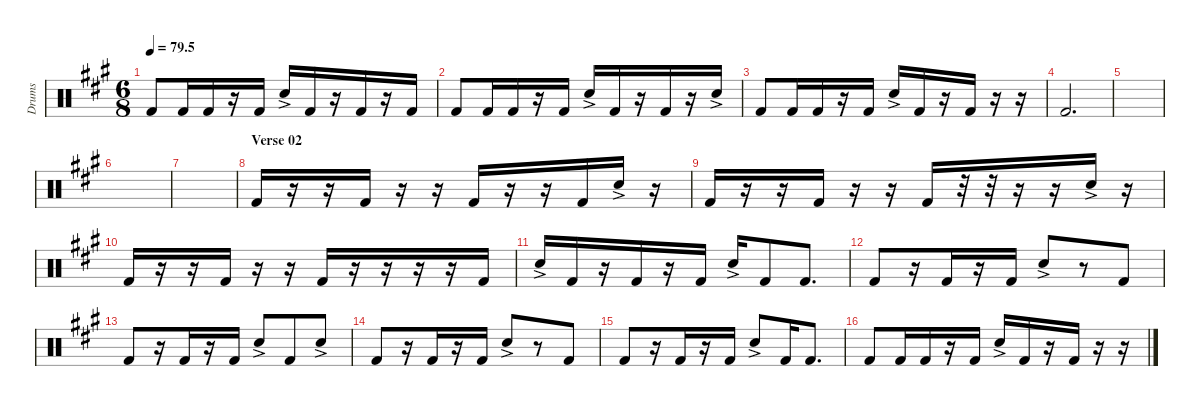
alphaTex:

\defaultSystemsLayout 4
\hideDynamics
\bracketExtendMode nobrackets
\otherSystemsTrackNameOrientation horizontal
\track ("F&S" "Drums") {instrument percussion}
\staff {score}
\articulation defaults
\ts (6 8)
\tempo
79.5
\accidentals auto
\clef neutral
\ottava regular
\simile none
\scale
0.333333
\ks a "Kick (hit) 2"{acc forcenatural}.8{dy f} "Kick (hit) 2"{acc forcenatural}.16 "Kick (hit) 2"{acc forcenatural}.16
r.16 "Kick (hit) 2"{acc forcenatural}.16 "Snare (hit) 2"{ac acc forcenatural}.16 "Kick (hit) 2"{acc forcenatural}.16 r.16 "Kick (hit) 2"{acc forcenatural}.16 r.16 "Kick (hit) 2"{acc forcenatural}.16 |
\scale
0.333333 "Kick (hit) 2"{acc forcenatural}.8 "Kick (hit) 2"{acc forcenatural}.16 "Kick (hit) 2"{acc forcenatural}.16 r.16 "Kick (hit) 2"{acc forcenatural}.16 "Snare (hit) 2"{ac acc forcenatural}.16 "Kick (hit) 2"{acc forcenatural}.16 r.16 "Kick (hit) 2"{acc forcenatural}.16 r.16 "Snare (hit) 2"{ac acc forcenatural}.16 |
\scale
0.333333 "Kick (hit) 2"{acc forcenatural}.8 "Kick (hit) 2"{acc forcenatural}.16 "Kick (hit) 2"{acc forcenatural}.16 r.16 "Kick (hit) 2"{acc forcenatural}.16 "Snare (hit) 2"{ac acc forcenatural}.16 "Kick (hit) 2"{acc forcenatural}.16 r.16 "Kick (hit) 2"{acc forcenatural}.16 r.16 r.16 |
\scale
0.333333 "Kick (hit) 2"{acc forcenatural}.2{d} |
\scale
0.333333 |
\scale
0.333333 |
\scale
0.333333 |
\section ("" "Verse 02")
\scale
0.333333 "Kick (hit) 2"{acc forcenatural}.16 r.16 r.16 "Kick (hit) 2"{acc forcenatural}.16 r.16 r.16 "Kick (hit) 2"{acc forcenatural}.16 r.16 r.16 "Kick (hit) 2"{acc forcenatural}.16 "Snare (hit) 2"{ac acc forcenatural}.16 r.16 |
\scale
0.333333 "Kick (hit) 2"{acc forcenatural}.16 r.16 r.16 "Kick (hit) 2"{acc forcenatural}.16 r.16 r.16 "Kick (hit) 2"{acc forcenatural}.16 r.32 r.32 r.16 r.16 "Snare (hit) 2"{ac acc forcenatural}.16 r.16 |
\scale
0.333333 "Kick (hit) 2"{acc forcenatural}.16 r.16 r.16 "Kick (hit) 2"{acc forcenatural}.16 r.16 r.16 "Kick (hit) 2"{acc forcenatural}.16 r.16 r.16 r.16 r.16 "Kick (hit) 2"{acc forcenatural}.16 |
\scale
0.333333 "Snare (hit) 2"{ac acc forcenatural}.16 "Kick (hit) 2"{acc forcenatural}.16 r.16 "Kick (hit) 2"{acc forcenatural}.16 r.16 "Kick (hit) 2"{acc forcenatural}.16 "Snare (hit) 2"{ac acc forcenatural}.16 "Kick (hit) 2"{acc forcenatural}.8 "Kick (hit) 2"{acc forcenatural}.8{d} |
\scale
0.333333 "Kick (hit) 2"{acc forcenatural}.8 r.16 "Kick (hit) 2"{acc forcenatural}.16 r.16 "Kick (hit) 2"{acc forcenatural}.16 "Snare (hit) 2"{ac acc forcenatural}.8 r.8 "Kick (hit) 2"{acc forcenatural}.8 |
\scale
0.333333 "Kick (hit) 2"{acc forcenatural}.8 r.16 "Kick (hit) 2"{acc forcenatural}.16 r.16 "Kick (hit) 2"{acc forcenatural}.16 "Snare (hit) 2"{ac acc forcenatural}.8 "Kick (hit) 2"{acc forcenatural}.8 "Snare (hit) 2"{ac acc forcenatural}.8 |
\scale
0.333333 "Kick (hit) 2"{acc forcenatural}.8 r.16 "Kick (hit) 2"{acc forcenatural}.16 r.16 "Kick (hit) 2"{acc forcenatural}.16 "Snare (hit) 2"{ac acc forcenatural}.8 r.8 "Kick (hit) 2"{acc forcenatural}.8 |
\scale
0.333333 "Kick (hit) 2"{acc forcenatural}.8 r.16 "Kick (hit) 2"{acc forcenatural}.16 r.16 "Kick (hit) 2"{acc forcenatural}.16 "Snare (hit) 2"{ac acc forcenatural}.8 "Kick (hit) 2"{acc forcenatural}.16 "Kick (hit) 2"{acc forcenatural}.8{d} |
\scale
0.333333 "Kick (hit) 2"{acc forcenatural}.8 "Kick (hit) 2"{acc forcenatural}.16 "Kick (hit) 2"{acc forcenatural}.16 r.16 "Kick (hit) 2"{acc forcenatural}.16 "Snare (hit) 2"{ac acc forcenatural}.16 "Kick (hit) 2"{acc forcenatural}.16 r.16 "Kick (hit) 2"{acc forcenatural}.16 r.16 r.16
